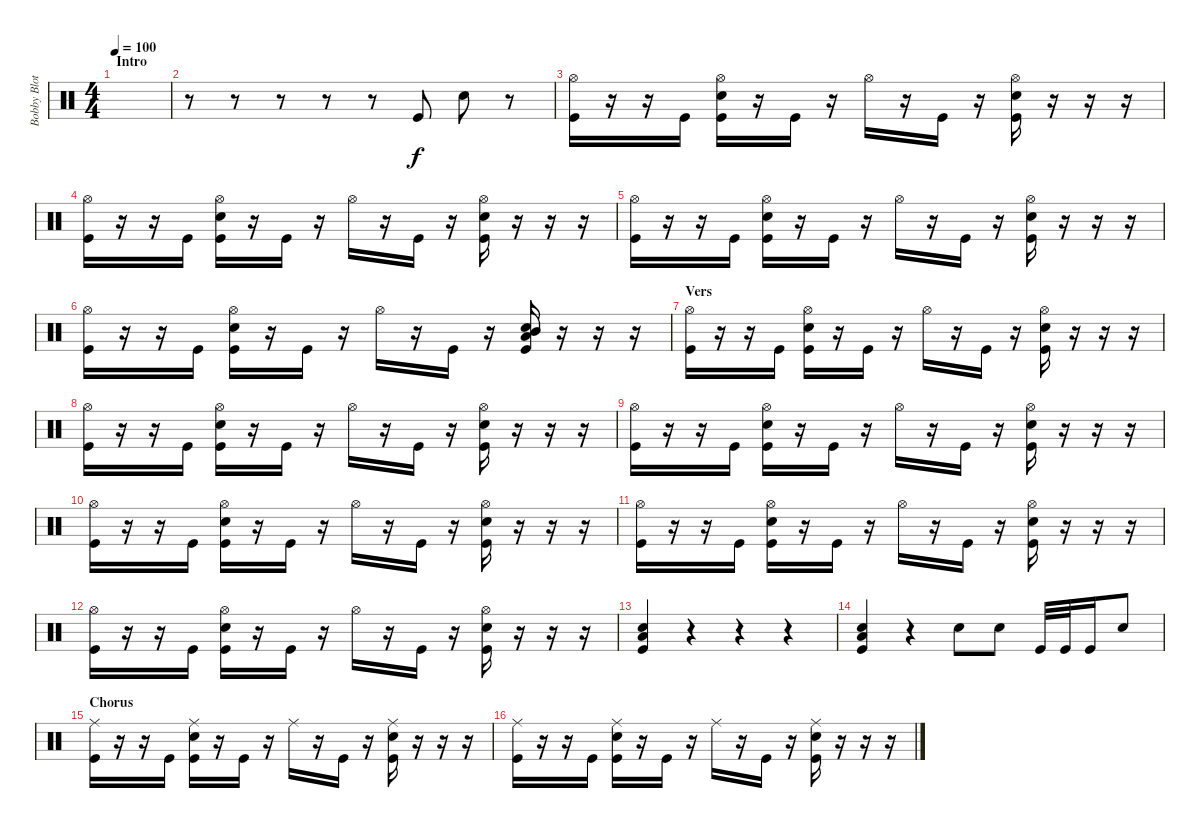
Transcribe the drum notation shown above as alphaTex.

\track ("Bobby Blotzer - Drums" "Bobby Blot") {instrument percussion}
\staff {score}
\articulation defaults
\ts (4 4)
\section ("" "Intro")
\tempo 100
\clef neutral
\ks c
|
r.8 r.8 r.8 r.8 r.8 "Kick (hit)".8 "Snare (hit) 2".8 r.8 |
("Hi-Hat (open)" "Kick (hit)").16 r.16 r.16 "Kick (hit)".16 ("Hi-Hat (open)" "Snare (hit) 2" "Kick (hit)").16 r.16 "Kick (hit)".16 r.16 "Hi-Hat (open)".16 r.16 "Kick (hit)".16 r.16 ("Hi-Hat (open)" "Snare (hit) 2" "Kick (hit)").16 r.16 r.16 r.16 |
("Hi-Hat (open)" "Kick (hit)").16 r.16 r.16 "Kick (hit)".16 ("Hi-Hat (open)" "Snare (hit) 2" "Kick (hit)").16 r.16 "Kick (hit)".16 r.16 "Hi-Hat (open)".16 r.16 "Kick (hit)".16 r.16 ("Hi-Hat (open)" "Snare (hit) 2" "Kick (hit)").16 r.16 r.16 r.16 |
("Hi-Hat (open)" "Kick (hit)").16 r.16 r.16 "Kick (hit)".16 ("Hi-Hat (open)" "Snare (hit) 2" "Kick (hit)").16 r.16 "Kick (hit)".16 r.16 "Hi-Hat (open)".16 r.16 "Kick (hit)".16 r.16 ("Hi-Hat (open)" "Snare (hit) 2" "Kick (hit)").16 r.16 r.16 r.16 |
("Hi-Hat (open)" "Kick (hit)").16 r.16 r.16 "Kick (hit)".16 ("Hi-Hat (open)" "Snare (hit) 2" "Kick (hit)").16 r.16 "Kick (hit)".16 r.16 "Hi-Hat (open)".16 r.16 "Kick (hit)".16 r.16 ("Mid Tom (hit)" "Low Tom (hit)" "Snare (hit) 2" "Kick (hit)").16 r.16 r.16 r.16 |
\section ("" "Vers")
("Hi-Hat (open)" "Kick (hit)").16 r.16 r.16 "Kick (hit)".16 ("Hi-Hat (open)" "Snare (hit) 2" "Kick (hit)").16 r.16 "Kick (hit)".16 r.16 "Hi-Hat (open)".16 r.16 "Kick (hit)".16 r.16 ("Hi-Hat (open)" "Snare (hit) 2" "Kick (hit)").16 r.16 r.16 r.16 |
("Hi-Hat (open)" "Kick (hit)").16 r.16 r.16 "Kick (hit)".16 ("Hi-Hat (open)" "Snare (hit) 2" "Kick (hit)").16 r.16 "Kick (hit)".16 r.16 "Hi-Hat (open)".16 r.16 "Kick (hit)".16 r.16 ("Hi-Hat (open)" "Snare (hit) 2" "Kick (hit)").16 r.16 r.16 r.16 |
("Hi-Hat (open)" "Kick (hit)").16 r.16 r.16 "Kick (hit)".16 ("Hi-Hat (open)" "Snare (hit) 2" "Kick (hit)").16 r.16 "Kick (hit)".16 r.16 "Hi-Hat (open)".16 r.16 "Kick (hit)".16 r.16 ("Hi-Hat (open)" "Snare (hit) 2" "Kick (hit)").16 r.16 r.16 r.16 |
("Hi-Hat (open)" "Kick (hit)").16 r.16 r.16 "Kick (hit)".16 ("Hi-Hat (open)" "Snare (hit) 2" "Kick (hit)").16 r.16 "Kick (hit)".16 r.16 "Hi-Hat (open)".16 r.16 "Kick (hit)".16 r.16 ("Hi-Hat (open)" "Snare (hit) 2" "Kick (hit)").16 r.16 r.16 r.16 |
("Hi-Hat (open)" "Kick (hit)").16 r.16 r.16 "Kick (hit)".16 ("Hi-Hat (open)" "Snare (hit) 2" "Kick (hit)").16 r.16 "Kick (hit)".16 r.16 "Hi-Hat (open)".16 r.16 "Kick (hit)".16 r.16 ("Hi-Hat (open)" "Snare (hit) 2" "Kick (hit)").16 r.16 r.16 r.16 |
("Hi-Hat (open)" "Kick (hit)").16 r.16 r.16 "Kick (hit)".16 ("Hi-Hat (open)" "Snare (hit) 2" "Kick (hit)").16 r.16 "Kick (hit)".16 r.16 "Hi-Hat (open)".16 r.16 "Kick (hit)".16 r.16 ("Hi-Hat (open)" "Snare (hit) 2" "Kick (hit)").16 r.16 r.16 r.16 |
("Low Tom (hit)" "Snare (hit) 2" "Kick (hit)").4 r.4 r.4 r.4 |
("Low Tom (hit)" "Snare (hit) 2" "Kick (hit)").4 r.4 "Snare (hit) 2".8 "Snare (hit) 2".8 "Kick (hit)".32 "Kick (hit)".32 "Kick (hit)".16 "Snare (hit) 2".8 |
\section ("" "Chorus")
("Ride (middle)" "Kick (hit)").16 r.16 r.16 "Kick (hit)".16 ("Ride (middle)" "Snare (hit) 2" "Kick (hit)").16 r.16 "Kick (hit)".16 r.16 "Ride (middle)".16 r.16 "Kick (hit)".16 r.16 ("Ride (middle)" "Snare (hit) 2" "Kick (hit)").16 r.16 r.16 r.16 |
("Ride (middle)" "Kick (hit)").16 r.16 r.16 "Kick (hit)".16 ("Ride (middle)" "Snare (hit) 2" "Kick (hit)").16 r.16 "Kick (hit)".16 r.16 "Ride (middle)".16 r.16 "Kick (hit)".16 r.16 ("Ride (middle)" "Snare (hit) 2" "Kick (hit)").16 r.16 r.16 r.16
